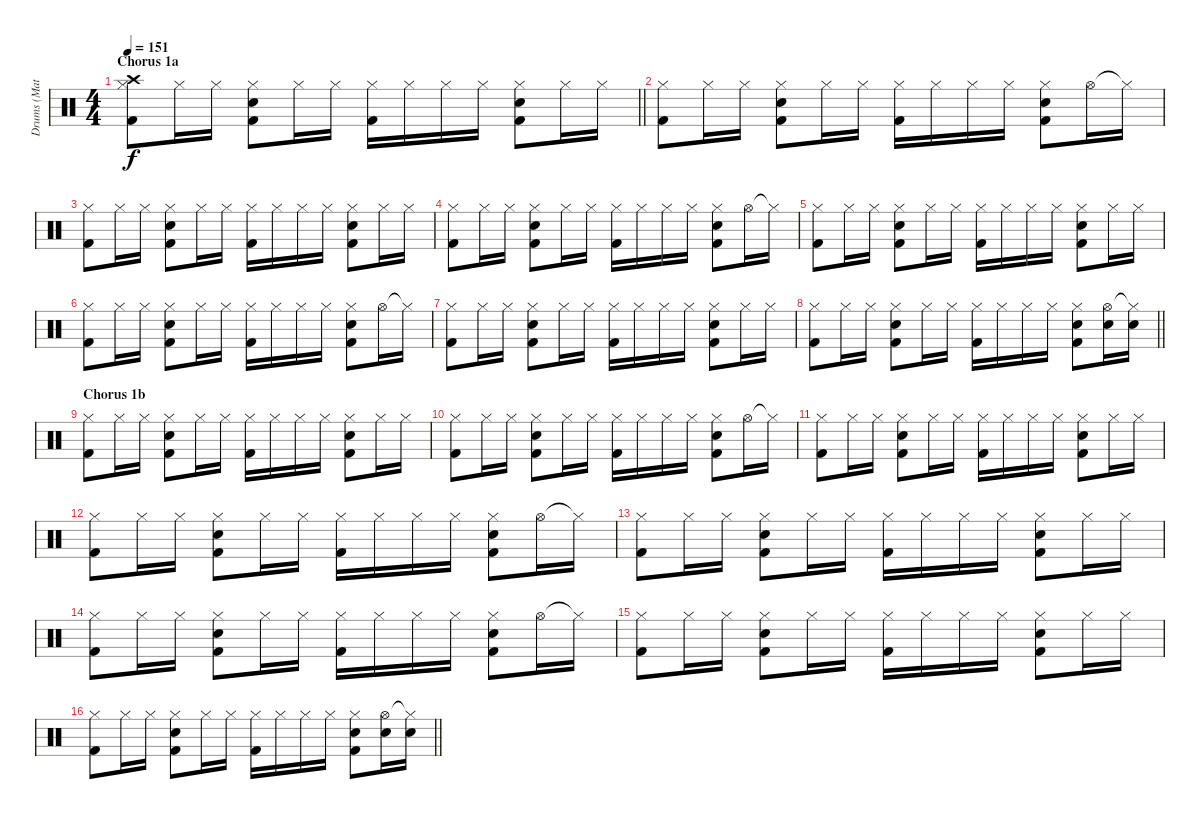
\track ("Drums (Matt Tong)" "Drums (Mat") {instrument percussion}
\staff {score}
\articulation defaults
\ts (4 4)
\section ("" "Chorus 1a")
\tempo 151
\clef neutral
\barLineRight lightlight
\ks c
("Hi-Hat (closed)" "Crash high (hit)" "Kick (hit) 2").8{dy f} "Hi-Hat (closed)".16 "Hi-Hat (closed)".16 ("Hi-Hat (closed)" "Electric Snare (hit)" "Kick (hit) 2").8 "Hi-Hat (closed)".16 "Hi-Hat (closed)".16 ("Hi-Hat (closed)" "Kick (hit) 2").16 "Hi-Hat (closed)".16 "Hi-Hat (closed)".16 "Hi-Hat (closed)".16 ("Hi-Hat (closed)" "Electric Snare (hit)" "Kick (hit) 2").8 "Hi-Hat (closed)".16 "Hi-Hat (closed)".16 |
("Hi-Hat (closed)" "Kick (hit) 2").8 "Hi-Hat (closed)".16 "Hi-Hat (closed)".16 ("Hi-Hat (closed)" "Electric Snare (hit)" "Kick (hit) 2").8 "Hi-Hat (closed)".16 "Hi-Hat (closed)".16 ("Hi-Hat (closed)" "Kick (hit) 2").16 "Hi-Hat (closed)".16 "Hi-Hat (closed)".16 "Hi-Hat (closed)".16 ("Hi-Hat (closed)" "Electric Snare (hit)" "Kick (hit) 2").8 "Hi-Hat (open)".16 "Hi-Hat (closed)"{t}.16 |
("Hi-Hat (closed)" "Kick (hit) 2").8 "Hi-Hat (closed)".16 "Hi-Hat (closed)".16 ("Hi-Hat (closed)" "Electric Snare (hit)" "Kick (hit) 2").8 "Hi-Hat (closed)".16 "Hi-Hat (closed)".16 ("Hi-Hat (closed)" "Kick (hit) 2").16 "Hi-Hat (closed)".16 "Hi-Hat (closed)".16 "Hi-Hat (closed)".16 ("Hi-Hat (closed)" "Electric Snare (hit)" "Kick (hit) 2").8 "Hi-Hat (closed)".16 "Hi-Hat (closed)".16 |
("Hi-Hat (closed)" "Kick (hit) 2").8 "Hi-Hat (closed)".16 "Hi-Hat (closed)".16 ("Hi-Hat (closed)" "Electric Snare (hit)" "Kick (hit) 2").8 "Hi-Hat (closed)".16 "Hi-Hat (closed)".16 ("Hi-Hat (closed)" "Kick (hit) 2").16 "Hi-Hat (closed)".16 "Hi-Hat (closed)".16 "Hi-Hat (closed)".16 ("Hi-Hat (closed)" "Electric Snare (hit)" "Kick (hit) 2").8 "Hi-Hat (open)".16 "Hi-Hat (closed)"{t}.16 |
("Hi-Hat (closed)" "Kick (hit) 2").8 "Hi-Hat (closed)".16 "Hi-Hat (closed)".16 ("Hi-Hat (closed)" "Electric Snare (hit)" "Kick (hit) 2").8 "Hi-Hat (closed)".16 "Hi-Hat (closed)".16 ("Hi-Hat (closed)" "Kick (hit) 2").16 "Hi-Hat (closed)".16 "Hi-Hat (closed)".16 "Hi-Hat (closed)".16 ("Hi-Hat (closed)" "Electric Snare (hit)" "Kick (hit) 2").8 "Hi-Hat (closed)".16 "Hi-Hat (closed)".16 |
("Hi-Hat (closed)" "Kick (hit) 2").8 "Hi-Hat (closed)".16 "Hi-Hat (closed)".16 ("Hi-Hat (closed)" "Electric Snare (hit)" "Kick (hit) 2").8 "Hi-Hat (closed)".16 "Hi-Hat (closed)".16 ("Hi-Hat (closed)" "Kick (hit) 2").16 "Hi-Hat (closed)".16 "Hi-Hat (closed)".16 "Hi-Hat (closed)".16 ("Hi-Hat (closed)" "Electric Snare (hit)" "Kick (hit) 2").8 "Hi-Hat (open)".16 "Hi-Hat (closed)"{t}.16 |
("Hi-Hat (closed)" "Kick (hit) 2").8 "Hi-Hat (closed)".16 "Hi-Hat (closed)".16 ("Hi-Hat (closed)" "Electric Snare (hit)" "Kick (hit) 2").8 "Hi-Hat (closed)".16 "Hi-Hat (closed)".16 ("Hi-Hat (closed)" "Kick (hit) 2").16 "Hi-Hat (closed)".16 "Hi-Hat (closed)".16 "Hi-Hat (closed)".16 ("Hi-Hat (closed)" "Electric Snare (hit)" "Kick (hit) 2").8 "Hi-Hat (closed)".16 "Hi-Hat (closed)".16 |
\barLineRight lightlight
("Hi-Hat (closed)" "Kick (hit) 2").8 "Hi-Hat (closed)".16 "Hi-Hat (closed)".16 ("Hi-Hat (closed)" "Electric Snare (hit)" "Kick (hit) 2").8 "Hi-Hat (closed)".16 "Hi-Hat (closed)".16 ("Hi-Hat (closed)" "Kick (hit) 2").16 "Hi-Hat (closed)".16 "Hi-Hat (closed)".16 "Hi-Hat (closed)".16 ("Hi-Hat (closed)" "Electric Snare (hit)" "Kick (hit) 2").8 ("Hi-Hat (open)" "Electric Snare (hit)").16 ("Hi-Hat (closed)"{t} "Electric Snare (hit)").16 |
\section ("" "Chorus 1b")
("Hi-Hat (closed)" "Kick (hit) 2").8 "Hi-Hat (closed)".16 "Hi-Hat (closed)".16 ("Hi-Hat (closed)" "Electric Snare (hit)" "Kick (hit) 2").8 "Hi-Hat (closed)".16 "Hi-Hat (closed)".16 ("Hi-Hat (closed)" "Kick (hit) 2").16 "Hi-Hat (closed)".16 "Hi-Hat (closed)".16 "Hi-Hat (closed)".16 ("Hi-Hat (closed)" "Electric Snare (hit)" "Kick (hit) 2").8 "Hi-Hat (closed)".16 "Hi-Hat (closed)".16 |
("Hi-Hat (closed)" "Kick (hit) 2").8 "Hi-Hat (closed)".16 "Hi-Hat (closed)".16 ("Hi-Hat (closed)" "Electric Snare (hit)" "Kick (hit) 2").8 "Hi-Hat (closed)".16 "Hi-Hat (closed)".16 ("Hi-Hat (closed)" "Kick (hit) 2").16 "Hi-Hat (closed)".16 "Hi-Hat (closed)".16 "Hi-Hat (closed)".16 ("Hi-Hat (closed)" "Electric Snare (hit)" "Kick (hit) 2").8 "Hi-Hat (open)".16 "Hi-Hat (closed)"{t}.16 |
("Hi-Hat (closed)" "Kick (hit) 2").8 "Hi-Hat (closed)".16 "Hi-Hat (closed)".16 ("Hi-Hat (closed)" "Electric Snare (hit)" "Kick (hit) 2").8 "Hi-Hat (closed)".16 "Hi-Hat (closed)".16 ("Hi-Hat (closed)" "Kick (hit) 2").16 "Hi-Hat (closed)".16 "Hi-Hat (closed)".16 "Hi-Hat (closed)".16 ("Hi-Hat (closed)" "Electric Snare (hit)" "Kick (hit) 2").8 "Hi-Hat (closed)".16 "Hi-Hat (closed)".16 |
("Hi-Hat (closed)" "Kick (hit) 2").8 "Hi-Hat (closed)".16 "Hi-Hat (closed)".16 ("Hi-Hat (closed)" "Electric Snare (hit)" "Kick (hit) 2").8 "Hi-Hat (closed)".16 "Hi-Hat (closed)".16 ("Hi-Hat (closed)" "Kick (hit) 2").16 "Hi-Hat (closed)".16 "Hi-Hat (closed)".16 "Hi-Hat (closed)".16 ("Hi-Hat (closed)" "Electric Snare (hit)" "Kick (hit) 2").8 "Hi-Hat (open)".16 "Hi-Hat (closed)"{t}.16 |
("Hi-Hat (closed)" "Kick (hit) 2").8 "Hi-Hat (closed)".16 "Hi-Hat (closed)".16 ("Hi-Hat (closed)" "Electric Snare (hit)" "Kick (hit) 2").8 "Hi-Hat (closed)".16 "Hi-Hat (closed)".16 ("Hi-Hat (closed)" "Kick (hit) 2").16 "Hi-Hat (closed)".16 "Hi-Hat (closed)".16 "Hi-Hat (closed)".16 ("Hi-Hat (closed)" "Electric Snare (hit)" "Kick (hit) 2").8 "Hi-Hat (closed)".16 "Hi-Hat (closed)".16 |
("Hi-Hat (closed)" "Kick (hit) 2").8 "Hi-Hat (closed)".16 "Hi-Hat (closed)".16 ("Hi-Hat (closed)" "Electric Snare (hit)" "Kick (hit) 2").8 "Hi-Hat (closed)".16 "Hi-Hat (closed)".16 ("Hi-Hat (closed)" "Kick (hit) 2").16 "Hi-Hat (closed)".16 "Hi-Hat (closed)".16 "Hi-Hat (closed)".16 ("Hi-Hat (closed)" "Electric Snare (hit)" "Kick (hit) 2").8 "Hi-Hat (open)".16 "Hi-Hat (closed)"{t}.16 |
("Hi-Hat (closed)" "Kick (hit) 2").8 "Hi-Hat (closed)".16 "Hi-Hat (closed)".16 ("Hi-Hat (closed)" "Electric Snare (hit)" "Kick (hit) 2").8 "Hi-Hat (closed)".16 "Hi-Hat (closed)".16 ("Hi-Hat (closed)" "Kick (hit) 2").16 "Hi-Hat (closed)".16 "Hi-Hat (closed)".16 "Hi-Hat (closed)".16 ("Hi-Hat (closed)" "Electric Snare (hit)" "Kick (hit) 2").8 "Hi-Hat (closed)".16 "Hi-Hat (closed)".16 |
\barLineRight lightlight
("Hi-Hat (closed)" "Kick (hit) 2").8 "Hi-Hat (closed)".16 "Hi-Hat (closed)".16 ("Hi-Hat (closed)" "Electric Snare (hit)" "Kick (hit) 2").8 "Hi-Hat (closed)".16 "Hi-Hat (closed)".16 ("Hi-Hat (closed)" "Kick (hit) 2").16 "Hi-Hat (closed)".16 "Hi-Hat (closed)".16 "Hi-Hat (closed)".16 ("Hi-Hat (closed)" "Electric Snare (hit)" "Kick (hit) 2").8 ("Hi-Hat (open)" "Electric Snare (hit)").16 ("Hi-Hat (closed)"{t} "Electric Snare (hit)").16
